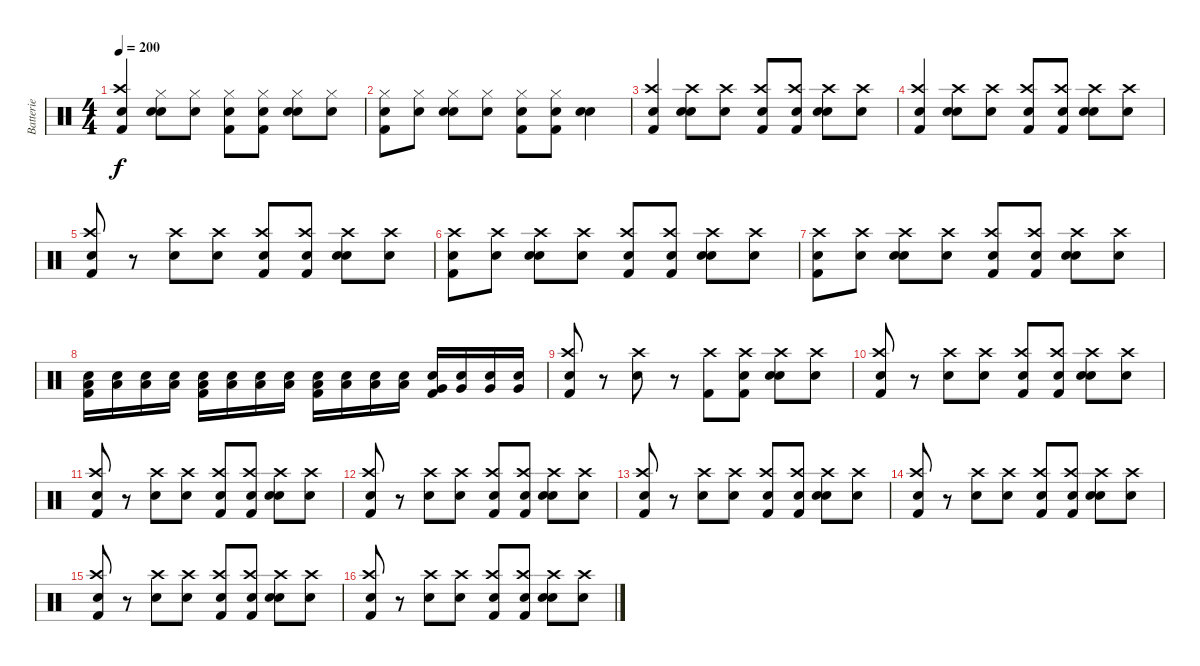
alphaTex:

\track ("Batterie" "Batterie") {instrument percussion}
\staff {score}
\articulation defaults
\ts (4 4)
\tempo 200
\clef neutral
\ks c
("Snare (hit)" "Crash high (hit)" "Kick (hit) 2").4{dy f} ("Snare (hit)" "Hi-Hat (closed)" "Electric Snare (hit)").8 ("Snare (hit)" "Hi-Hat (closed)").8 ("Snare (hit)" "Hi-Hat (closed)" "Kick (hit) 2").8 ("Snare (hit)" "Hi-Hat (closed)" "Kick (hit) 2").8 ("Snare (hit)" "Hi-Hat (closed)" "Electric Snare (hit)").8 ("Snare (hit)" "Hi-Hat (closed)").8 |
("Snare (hit)" "Kick (hit) 2" "Hi-Hat (closed)").8 ("Snare (hit)" "Hi-Hat (closed)").8 ("Snare (hit)" "Electric Snare (hit)" "Hi-Hat (closed)").8 ("Snare (hit)" "Hi-Hat (closed)").8 ("Snare (hit)" "Kick (hit) 2" "Hi-Hat (closed)").8 ("Snare (hit)" "Kick (hit) 2" "Hi-Hat (closed)").8 ("Snare (hit)" "Electric Snare (hit)").4 |
("Snare (hit)" "Kick (hit) 2" "Crash high (hit)").4 ("Snare (hit)" "Electric Snare (hit)" "Crash high (hit)").8 ("Snare (hit)" "Crash high (hit)").8 ("Snare (hit)" "Kick (hit) 2" "Crash high (hit)").8 ("Snare (hit)" "Kick (hit) 2" "Crash high (hit)").8 ("Snare (hit)" "Electric Snare (hit)" "Crash high (hit)").8 ("Snare (hit)" "Crash high (hit)").8 |
("Snare (hit)" "Kick (hit) 2" "Crash high (hit)").4 ("Snare (hit)" "Electric Snare (hit)" "Crash high (hit)").8 ("Snare (hit)" "Crash high (hit)").8 ("Snare (hit)" "Kick (hit) 2" "Crash high (hit)").8 ("Snare (hit)" "Kick (hit) 2" "Crash high (hit)").8 ("Snare (hit)" "Electric Snare (hit)" "Crash high (hit)").8 ("Snare (hit)" "Crash high (hit)").8 |
("Snare (hit)" "Crash high (hit)" "Kick (hit) 2").8 r.8 ("Crash high (hit)" "Electric Snare (hit)").8 ("Snare (hit)" "Crash high (hit)").8 ("Snare (hit)" "Crash high (hit)" "Kick (hit) 2").8 ("Snare (hit)" "Crash high (hit)" "Kick (hit) 2").8 ("Snare (hit)" "Crash high (hit)" "Electric Snare (hit)").8 ("Snare (hit)" "Crash high (hit)").8 |
("Snare (hit)" "Crash high (hit)" "Kick (hit) 2").8 ("Snare (hit)" "Crash high (hit)").8 ("Snare (hit)" "Crash high (hit)" "Electric Snare (hit)").8 ("Snare (hit)" "Crash high (hit)").8 ("Snare (hit)" "Crash high (hit)" "Kick (hit) 2").8 ("Snare (hit)" "Crash high (hit)" "Kick (hit) 2").8 ("Snare (hit)" "Crash high (hit)" "Electric Snare (hit)").8 ("Snare (hit)" "Crash high (hit)").8 |
("Snare (hit)" "Crash high (hit)" "Kick (hit) 2").8 ("Snare (hit)" "Crash high (hit)").8 ("Snare (hit)" "Crash high (hit)" "Electric Snare (hit)").8 ("Snare (hit)" "Crash high (hit)").8 ("Snare (hit)" "Crash high (hit)" "Kick (hit) 2").8 ("Snare (hit)" "Crash high (hit)" "Kick (hit) 2").8 ("Snare (hit)" "Crash high (hit)" "Electric Snare (hit)").8 ("Snare (hit)" "Crash high (hit)").8 |
("Snare (hit)" "Kick (hit) 2" "Low Floor Tom (hit)").16 ("Snare (hit)" "Low Floor Tom (hit)").16 ("Snare (hit)" "Low Floor Tom (hit)").16 ("Snare (hit)" "Low Floor Tom (hit)").16 ("Snare (hit)" "Kick (hit) 2" "Low Floor Tom (hit)").16 ("Snare (hit)" "Low Floor Tom (hit)").16 ("Snare (hit)" "Low Floor Tom (hit)").16 ("Snare (hit)" "Low Floor Tom (hit)").16 ("Snare (hit)" "Kick (hit) 2" "Low Floor Tom (hit)").16 ("Snare (hit)" "Low Floor Tom (hit)").16 ("Snare (hit)" "Low Floor Tom (hit)").16 ("Snare (hit)" "Low Floor Tom (hit)").16 ("Snare (hit)" "Kick (hit) 2" "Very Low Tom (hit)").16 ("Snare (hit)" "Very Low Tom (hit)").16 ("Snare (hit)" "Very Low Tom (hit)").16 ("Snare (hit)" "Very Low Tom (hit)").16 |
("Snare (hit)" "Crash high (hit)" "Kick (hit) 2").8 r.8 ("Crash high (hit)" "Electric Snare (hit)").8 r.8 ("Crash high (hit)" "Kick (hit) 2").8 ("Snare (hit)" "Crash high (hit)" "Kick (hit) 2").8 ("Snare (hit)" "Crash high (hit)" "Electric Snare (hit)").8 ("Snare (hit)" "Crash high (hit)").8 |
("Snare (hit)" "Crash high (hit)" "Kick (hit) 2").8 r.8 ("Crash high (hit)" "Electric Snare (hit)").8 ("Snare (hit)" "Crash high (hit)").8 ("Snare (hit)" "Crash high (hit)" "Kick (hit) 2").8 ("Snare (hit)" "Crash high (hit)" "Kick (hit) 2").8 ("Snare (hit)" "Crash high (hit)" "Electric Snare (hit)").8 ("Snare (hit)" "Crash high (hit)").8 |
("Snare (hit)" "Crash high (hit)" "Kick (hit) 2").8 r.8 ("Crash high (hit)" "Electric Snare (hit)").8 ("Snare (hit)" "Crash high (hit)").8 ("Snare (hit)" "Crash high (hit)" "Kick (hit) 2").8 ("Snare (hit)" "Crash high (hit)" "Kick (hit) 2").8 ("Snare (hit)" "Crash high (hit)" "Electric Snare (hit)").8 ("Snare (hit)" "Crash high (hit)").8 |
("Snare (hit)" "Crash high (hit)" "Kick (hit) 2").8 r.8 ("Crash high (hit)" "Electric Snare (hit)").8 ("Snare (hit)" "Crash high (hit)").8 ("Snare (hit)" "Crash high (hit)" "Kick (hit) 2").8 ("Snare (hit)" "Crash high (hit)" "Kick (hit) 2").8 ("Snare (hit)" "Crash high (hit)" "Electric Snare (hit)").8 ("Snare (hit)" "Crash high (hit)").8 |
("Snare (hit)" "Crash high (hit)" "Kick (hit) 2").8 r.8 ("Crash high (hit)" "Electric Snare (hit)").8 ("Snare (hit)" "Crash high (hit)").8 ("Snare (hit)" "Crash high (hit)" "Kick (hit) 2").8 ("Snare (hit)" "Crash high (hit)" "Kick (hit) 2").8 ("Snare (hit)" "Crash high (hit)" "Electric Snare (hit)").8 ("Snare (hit)" "Crash high (hit)").8 |
("Snare (hit)" "Crash high (hit)" "Kick (hit) 2").8 r.8 ("Crash high (hit)" "Electric Snare (hit)").8 ("Snare (hit)" "Crash high (hit)").8 ("Snare (hit)" "Crash high (hit)" "Kick (hit) 2").8 ("Snare (hit)" "Crash high (hit)" "Kick (hit) 2").8 ("Snare (hit)" "Crash high (hit)" "Electric Snare (hit)").8 ("Snare (hit)" "Crash high (hit)").8 |
("Snare (hit)" "Crash high (hit)" "Kick (hit) 2").8 r.8 ("Crash high (hit)" "Electric Snare (hit)").8 ("Snare (hit)" "Crash high (hit)").8 ("Snare (hit)" "Crash high (hit)" "Kick (hit) 2").8 ("Snare (hit)" "Crash high (hit)" "Kick (hit) 2").8 ("Snare (hit)" "Crash high (hit)" "Electric Snare (hit)").8 ("Snare (hit)" "Crash high (hit)").8 |
("Snare (hit)" "Crash high (hit)" "Kick (hit) 2").8 r.8 ("Crash high (hit)" "Electric Snare (hit)").8 ("Snare (hit)" "Crash high (hit)").8 ("Snare (hit)" "Crash high (hit)" "Kick (hit) 2").8 ("Snare (hit)" "Crash high (hit)" "Kick (hit) 2").8 ("Snare (hit)" "Crash high (hit)" "Electric Snare (hit)").8 ("Snare (hit)" "Crash high (hit)").8
